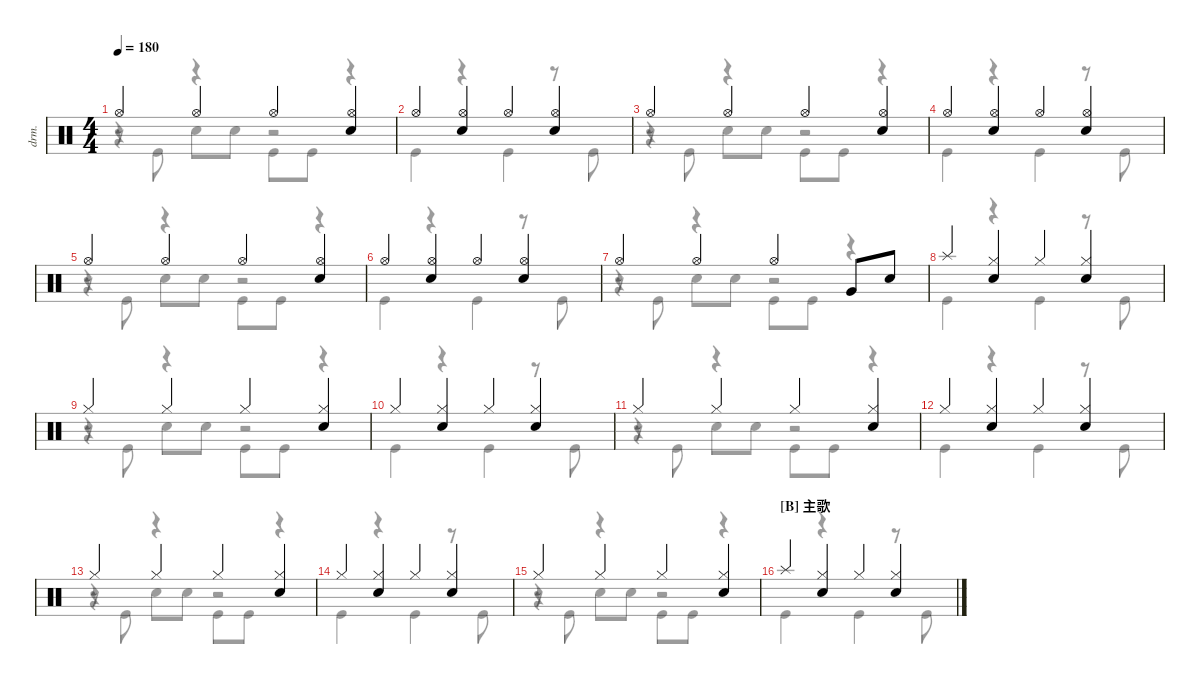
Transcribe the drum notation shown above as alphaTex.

\defaultSystemsLayout 4
\hideDynamics
\bracketExtendMode nobrackets
\otherSystemsTrackNameOrientation horizontal
\track ("Drumkit" "drm.") {instrument percussion}
\staff {score}
\articulation defaults
\voice
\ts (4 4)
\tempo 180
\clef neutral
\ks c "Hi-Hat (open)".4{dy mf} "Hi-Hat (open)".4 "Hi-Hat (open)".4
("Hi-Hat (open)" "Snare (hit) 2").4 |
"Hi-Hat (open)".4 ("Hi-Hat (open)" "Snare (hit) 2").4 "Hi-Hat (open)".4 ("Hi-Hat (open)" "Snare (hit) 2").4 |
"Hi-Hat (open)".4 "Hi-Hat (open)".4 "Hi-Hat (open)".4 ("Hi-Hat (open)" "Snare (hit) 2").4 |
"Hi-Hat (open)".4 ("Hi-Hat (open)" "Snare (hit) 2").4 "Hi-Hat (open)".4 ("Hi-Hat (open)" "Snare (hit) 2").4 |
"Hi-Hat (open)".4 "Hi-Hat (open)".4 "Hi-Hat (open)".4 ("Hi-Hat (open)" "Snare (hit) 2").4 |
"Hi-Hat (open)".4 ("Hi-Hat (open)" "Snare (hit) 2").4 "Hi-Hat (open)".4 ("Hi-Hat (open)" "Snare (hit) 2").4 |
"Hi-Hat (open)".4 "Hi-Hat (open)".4 "Hi-Hat (open)".4 "Very Low Tom (hit)".8 "Snare (hit) 2".8 |
"Splash (hit)".4 ("Hi-Hat (closed)" "Snare (hit) 2").4 "Hi-Hat (closed)".4 ("Hi-Hat (closed)" "Snare (hit) 2").4 |
"Hi-Hat (closed)".4 "Hi-Hat (closed)".4 "Hi-Hat (closed)".4 ("Hi-Hat (closed)" "Snare (hit) 2").4 |
"Hi-Hat (closed)".4 ("Hi-Hat (closed)" "Snare (hit) 2").4 "Hi-Hat (closed)".4 ("Hi-Hat (closed)" "Snare (hit) 2").4 |
"Hi-Hat (closed)".4 "Hi-Hat (closed)".4 "Hi-Hat (closed)".4 ("Hi-Hat (closed)" "Snare (hit) 2").4 |
"Hi-Hat (closed)".4 ("Hi-Hat (closed)" "Snare (hit) 2").4 "Hi-Hat (closed)".4 ("Hi-Hat (closed)" "Snare (hit) 2").4 |
"Hi-Hat (closed)".4 "Hi-Hat (closed)".4 "Hi-Hat (closed)".4 ("Hi-Hat (closed)" "Snare (hit) 2").4 |
"Hi-Hat (closed)".4 ("Hi-Hat (closed)" "Snare (hit) 2").4 "Hi-Hat (closed)".4 ("Hi-Hat (closed)" "Snare (hit) 2").4 |
"Hi-Hat (closed)".4 "Hi-Hat (closed)".4 "Hi-Hat (closed)".4 ("Hi-Hat (closed)" "Snare (hit) 2").4 |
\section ("B" "主歌")
"Splash (hit)".4 ("Hi-Hat (closed)" "Snare (hit) 2").4 "Hi-Hat (closed)".4 ("Hi-Hat (closed)" "Snare (hit) 2").4
\voice
\clef neutral
\ottava regular
\simile none
\ks c
r.8{dy mf} "Kick (hit)".8 r.4 "Kick (hit)".8 "Kick (hit)".8 r.4 |
"Kick (hit)".4 r.4 "Kick (hit)".4 r.8 "Kick (hit)".8 |
r.8 "Kick (hit)".8 r.4 "Kick (hit)".8 "Kick (hit)".8 r.4 |
"Kick (hit)".4 r.4 "Kick (hit)".4 r.8 "Kick (hit)".8 |
r.8 "Kick (hit)".8 r.4 "Kick (hit)".8 "Kick (hit)".8 r.4 |
"Kick (hit)".4 r.4 "Kick (hit)".4 r.8 "Kick (hit)".8 |
r.8 "Kick (hit)".8 r.4 "Kick (hit)".8 "Kick (hit)".8 r.4 |
"Kick (hit)".4 r.4 "Kick (hit)".4 r.8 "Kick (hit)".8 |
r.8 "Kick (hit)".8 r.4 "Kick (hit)".8 "Kick (hit)".8 r.4 |
"Kick (hit)".4 r.4 "Kick (hit)".4 r.8 "Kick (hit)".8 |
r.8 "Kick (hit)".8 r.4 "Kick (hit)".8 "Kick (hit)".8 r.4 |
"Kick (hit)".4 r.4 "Kick (hit)".4 r.8 "Kick (hit)".8 |
r.8 "Kick (hit)".8 r.4 "Kick (hit)".8 "Kick (hit)".8 r.4 |
"Kick (hit)".4 r.4 "Kick (hit)".4 r.8 "Kick (hit)".8 |
r.8 "Kick (hit)".8 r.4 "Kick (hit)".8 "Kick (hit)".8 r.4 |
"Kick (hit)".4 r.4 "Kick (hit)".4 r.8 "Kick (hit)".8
\voice
\clef neutral
\ottava regular
\simile none
\ks c
r.4{dy mf} "Snare (hit) 2".8 "Snare (hit) 2".8 r.2 |
|
r.4 "Snare (hit) 2".8 "Snare (hit) 2".8 r.2 |
|
r.4 "Snare (hit) 2".8 "Snare (hit) 2".8 r.2 |
|
r.4 "Snare (hit) 2".8 "Snare (hit) 2".8 r.2 |
|
r.4 "Snare (hit) 2".8 "Snare (hit) 2".8 r.2 |
|
r.4 "Snare (hit) 2".8 "Snare (hit) 2".8 r.2 |
|
r.4 "Snare (hit) 2".8 "Snare (hit) 2".8 r.2 |
|
r.4 "Snare (hit) 2".8 "Snare (hit) 2".8 r.2 |
